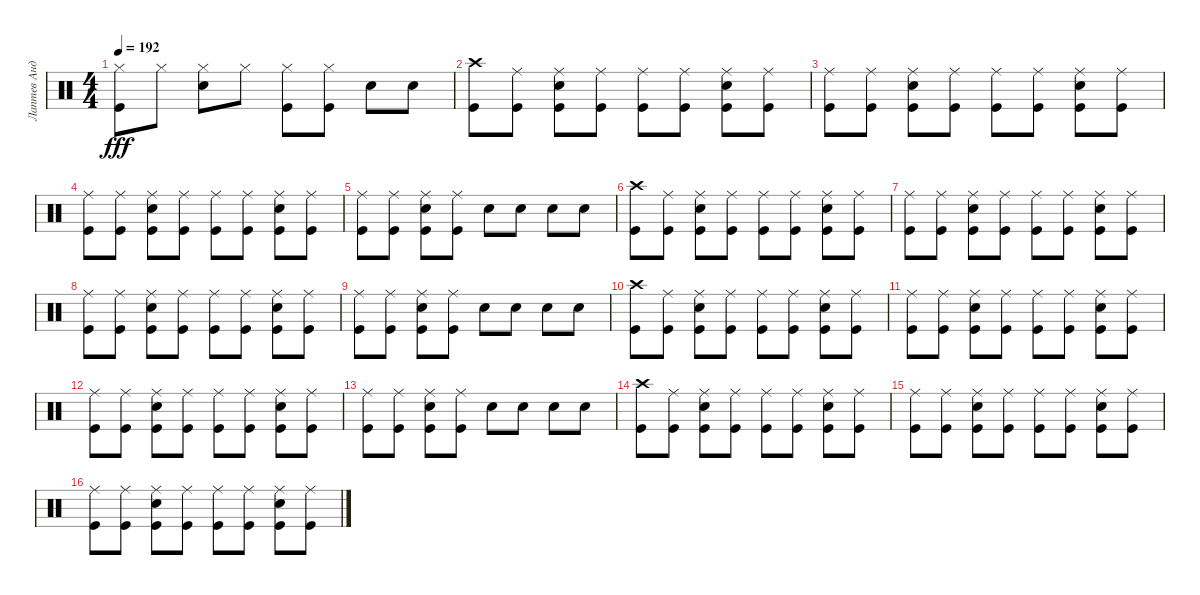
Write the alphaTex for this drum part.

\track ("Лаптев Андрей" "Лаптев Анд") {instrument percussion}
\staff {score}
\articulation defaults
\ts (4 4)
\tempo 192
\clef neutral
\ks c
("Hi-Hat (closed)" "Kick (hit)").8{dy fff} "Hi-Hat (closed)".8 ("Hi-Hat (closed)" "Electric Snare (hit)").8 "Hi-Hat (closed)".8 ("Kick (hit)" "Hi-Hat (closed)").8 ("Hi-Hat (closed)" "Kick (hit)").8 "Electric Snare (hit)".8 "Electric Snare (hit)".8 |
("Crash high (hit)" "Kick (hit)").8 ("Ride (middle)" "Kick (hit)").8 ("Ride (middle)" "Electric Snare (hit)" "Kick (hit)").8 ("Kick (hit)" "Ride (middle)").8 ("Kick (hit)" "Ride (middle)").8 ("Kick (hit)" "Ride (middle)").8 ("Ride (middle)" "Electric Snare (hit)" "Kick (hit)").8 ("Ride (middle)" "Kick (hit)").8 |
("Kick (hit)" "Ride (middle)").8 ("Ride (middle)" "Kick (hit)").8 ("Ride (middle)" "Kick (hit)" "Electric Snare (hit)").8 ("Kick (hit)" "Ride (middle)").8 ("Kick (hit)" "Ride (middle)").8 ("Ride (middle)" "Kick (hit)").8 ("Electric Snare (hit)" "Ride (middle)" "Kick (hit)").8 ("Ride (middle)" "Kick (hit)").8 |
("Kick (hit)" "Ride (middle)").8 ("Ride (middle)" "Kick (hit)").8 ("Electric Snare (hit)" "Kick (hit)" "Ride (middle)").8 ("Ride (middle)" "Kick (hit)").8 ("Ride (middle)" "Kick (hit)").8 ("Ride (middle)" "Kick (hit)").8 ("Kick (hit)" "Ride (middle)" "Electric Snare (hit)").8 ("Ride (middle)" "Kick (hit)").8 |
("Ride (middle)" "Kick (hit)").8 ("Ride (middle)" "Kick (hit)").8 ("Electric Snare (hit)" "Ride (middle)" "Kick (hit)").8 ("Ride (middle)" "Kick (hit)").8 "Electric Snare (hit)".8 "Electric Snare (hit)".8 "Electric Snare (hit)".8 "Electric Snare (hit)".8 |
("Crash high (hit)" "Kick (hit)").8 ("Ride (middle)" "Kick (hit)").8 ("Kick (hit)" "Electric Snare (hit)" "Ride (middle)").8 ("Ride (middle)" "Kick (hit)").8 ("Ride (middle)" "Kick (hit)").8 ("Ride (middle)" "Kick (hit)").8 ("Ride (middle)" "Electric Snare (hit)" "Kick (hit)").8 ("Kick (hit)" "Ride (middle)").8 |
("Ride (middle)" "Kick (hit)").8 ("Kick (hit)" "Ride (middle)").8 ("Ride (middle)" "Electric Snare (hit)" "Kick (hit)").8 ("Kick (hit)" "Ride (middle)").8 ("Kick (hit)" "Ride (middle)").8 ("Kick (hit)" "Ride (middle)").8 ("Ride (middle)" "Kick (hit)" "Electric Snare (hit)").8 ("Ride (middle)" "Kick (hit)").8 |
("Ride (middle)" "Kick (hit)").8 ("Kick (hit)" "Ride (middle)").8 ("Ride (middle)" "Electric Snare (hit)" "Kick (hit)").8 ("Ride (middle)" "Kick (hit)").8 ("Ride (middle)" "Kick (hit)").8 ("Ride (middle)" "Kick (hit)").8 ("Kick (hit)" "Electric Snare (hit)" "Ride (middle)").8 ("Kick (hit)" "Ride (middle)").8 |
("Ride (middle)" "Kick (hit)").8 ("Ride (middle)" "Kick (hit)").8 ("Kick (hit)" "Electric Snare (hit)" "Ride (middle)").8 ("Ride (middle)" "Kick (hit)").8 "Electric Snare (hit)".8 "Electric Snare (hit)".8 "Electric Snare (hit)".8 "Electric Snare (hit)".8 |
("Kick (hit)" "Crash high (hit)").8 ("Kick (hit)" "Ride (middle)").8 ("Electric Snare (hit)" "Kick (hit)" "Ride (middle)").8 ("Kick (hit)" "Ride (middle)").8 ("Kick (hit)" "Ride (middle)").8 ("Ride (middle)" "Kick (hit)").8 ("Ride (middle)" "Electric Snare (hit)" "Kick (hit)").8 ("Ride (middle)" "Kick (hit)").8 |
("Kick (hit)" "Ride (middle)").8 ("Ride (middle)" "Kick (hit)").8 ("Electric Snare (hit)" "Kick (hit)" "Ride (middle)").8 ("Kick (hit)" "Ride (middle)").8 ("Ride (middle)" "Kick (hit)").8 ("Ride (middle)" "Kick (hit)").8 ("Electric Snare (hit)" "Kick (hit)" "Ride (middle)").8 ("Ride (middle)" "Kick (hit)").8 |
("Ride (middle)" "Kick (hit)").8 ("Kick (hit)" "Ride (middle)").8 ("Kick (hit)" "Ride (middle)" "Electric Snare (hit)").8 ("Kick (hit)" "Ride (middle)").8 ("Ride (middle)" "Kick (hit)").8 ("Ride (middle)" "Kick (hit)").8 ("Electric Snare (hit)" "Kick (hit)" "Ride (middle)").8 ("Kick (hit)" "Ride (middle)").8 |
("Ride (middle)" "Kick (hit)").8 ("Kick (hit)" "Ride (middle)").8 ("Kick (hit)" "Electric Snare (hit)" "Ride (middle)").8 ("Ride (middle)" "Kick (hit)").8 "Electric Snare (hit)".8 "Electric Snare (hit)".8 "Electric Snare (hit)".8 "Electric Snare (hit)".8 |
("Crash high (hit)" "Kick (hit)").8 ("Ride (middle)" "Kick (hit)").8 ("Electric Snare (hit)" "Ride (middle)" "Kick (hit)").8 ("Ride (middle)" "Kick (hit)").8 ("Kick (hit)" "Ride (middle)").8 ("Kick (hit)" "Ride (middle)").8 ("Electric Snare (hit)" "Ride (middle)" "Kick (hit)").8 ("Kick (hit)" "Ride (middle)").8 |
("Kick (hit)" "Ride (middle)").8 ("Ride (middle)" "Kick (hit)").8 ("Kick (hit)" "Electric Snare (hit)" "Ride (middle)").8 ("Ride (middle)" "Kick (hit)").8 ("Kick (hit)" "Ride (middle)").8 ("Kick (hit)" "Ride (middle)").8 ("Electric Snare (hit)" "Ride (middle)" "Kick (hit)").8 ("Ride (middle)" "Kick (hit)").8 |
("Kick (hit)" "Ride (middle)").8 ("Kick (hit)" "Ride (middle)").8 ("Electric Snare (hit)" "Kick (hit)" "Ride (middle)").8 ("Kick (hit)" "Ride (middle)").8 ("Kick (hit)" "Ride (middle)").8 ("Ride (middle)" "Kick (hit)").8 ("Kick (hit)" "Ride (middle)" "Electric Snare (hit)").8 ("Ride (middle)" "Kick (hit)").8
